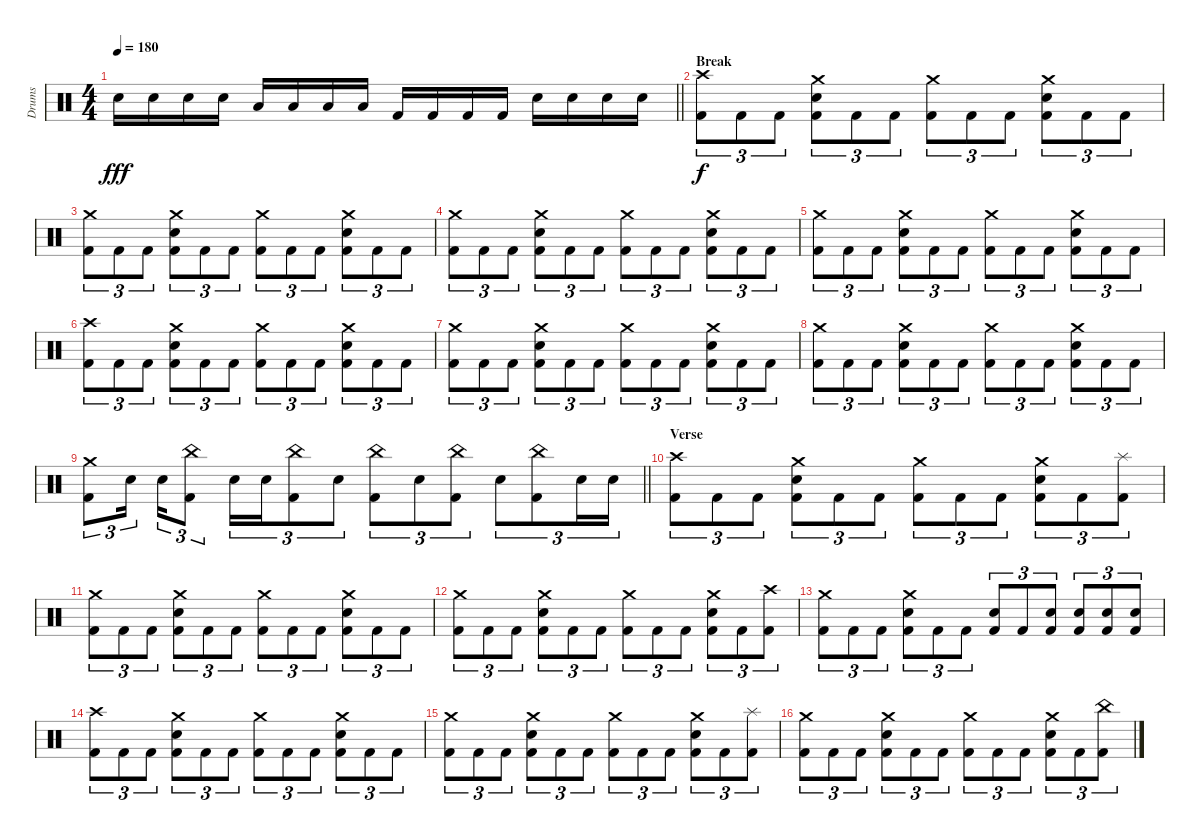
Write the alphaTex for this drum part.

\track ("Drums" "Drums") {instrument percussion}
\staff {score}
\articulation defaults
\ts (4 4)
\tempo 180
\clef neutral
\barLineRight lightlight
\ks c "Electric Snare (hit)".16{dy fff} "Electric Snare (hit)".16 "Electric Snare (hit)".16 "Electric Snare (hit)".16 "Low Tom (hit)".16 "Low Tom (hit)".16 "Low Tom (hit)".16 "Low Tom (hit)".16 "Kick (hit) 2".16 "Kick (hit) 2".16 "Kick (hit) 2".16 "Kick (hit) 2".16 "Electric Snare (hit)".16 "Electric Snare (hit)".16 "Electric Snare (hit)".16 "Electric Snare (hit)".16
|
\section ("" "Break")
("Crash high (hit)" "Kick (hit) 2").8{tu (3 2) dy f} "Kick (hit) 2".8{tu (3 2)} "Kick (hit) 2".8{tu (3 2)} ("Crash medium (hit)" "Electric Snare (hit)" "Kick (hit) 2").8{tu (3 2)} "Kick (hit) 2".8{tu (3 2)} "Kick (hit) 2".8{tu (3 2)} ("Crash medium (hit)" "Kick (hit) 2").8{tu (3 2)} "Kick (hit) 2".8{tu (3 2)} "Kick (hit) 2".8{tu (3 2)} ("Crash medium (hit)" "Electric Snare (hit)" "Kick (hit) 2").8{tu (3 2)} "Kick (hit) 2".8{tu (3 2)} "Kick (hit) 2".8{tu (3 2)} |
("Crash medium (hit)" "Kick (hit) 2").8{tu (3 2)} "Kick (hit) 2".8{tu (3 2)} "Kick (hit) 2".8{tu (3 2)} ("Crash medium (hit)" "Electric Snare (hit)" "Kick (hit) 2").8{tu (3 2)} "Kick (hit) 2".8{tu (3 2)} "Kick (hit) 2".8{tu (3 2)} ("Crash medium (hit)" "Kick (hit) 2").8{tu (3 2)} "Kick (hit) 2".8{tu (3 2)} "Kick (hit) 2".8{tu (3 2)} ("Crash medium (hit)" "Electric Snare (hit)" "Kick (hit) 2").8{tu (3 2)} "Kick (hit) 2".8{tu (3 2)} "Kick (hit) 2".8{tu (3 2)} |
("Crash medium (hit)" "Kick (hit) 2").8{tu (3 2)} "Kick (hit) 2".8{tu (3 2)} "Kick (hit) 2".8{tu (3 2)} ("Crash medium (hit)" "Electric Snare (hit)" "Kick (hit) 2").8{tu (3 2)} "Kick (hit) 2".8{tu (3 2)} "Kick (hit) 2".8{tu (3 2)} ("Crash medium (hit)" "Kick (hit) 2").8{tu (3 2)} "Kick (hit) 2".8{tu (3 2)} "Kick (hit) 2".8{tu (3 2)} ("Crash medium (hit)" "Electric Snare (hit)" "Kick (hit) 2").8{tu (3 2)} "Kick (hit) 2".8{tu (3 2)} "Kick (hit) 2".8{tu (3 2)} |
("Crash medium (hit)" "Kick (hit) 2").8{tu (3 2)} "Kick (hit) 2".8{tu (3 2)} "Kick (hit) 2".8{tu (3 2)} ("Crash medium (hit)" "Electric Snare (hit)" "Kick (hit) 2").8{tu (3 2)} "Kick (hit) 2".8{tu (3 2)} "Kick (hit) 2".8{tu (3 2)} ("Crash medium (hit)" "Kick (hit) 2").8{tu (3 2)} "Kick (hit) 2".8{tu (3 2)} "Kick (hit) 2".8{tu (3 2)} ("Crash medium (hit)" "Electric Snare (hit)" "Kick (hit) 2").8{tu (3 2)} "Kick (hit) 2".8{tu (3 2)} "Kick (hit) 2".8{tu (3 2)} |
("Crash high (hit)" "Kick (hit) 2").8{tu (3 2)} "Kick (hit) 2".8{tu (3 2)} "Kick (hit) 2".8{tu (3 2)} ("Crash medium (hit)" "Electric Snare (hit)" "Kick (hit) 2").8{tu (3 2)} "Kick (hit) 2".8{tu (3 2)} "Kick (hit) 2".8{tu (3 2)} ("Crash medium (hit)" "Kick (hit) 2").8{tu (3 2)} "Kick (hit) 2".8{tu (3 2)} "Kick (hit) 2".8{tu (3 2)} ("Crash medium (hit)" "Electric Snare (hit)" "Kick (hit) 2").8{tu (3 2)} "Kick (hit) 2".8{tu (3 2)} "Kick (hit) 2".8{tu (3 2)} |
("Crash medium (hit)" "Kick (hit) 2").8{tu (3 2)} "Kick (hit) 2".8{tu (3 2)} "Kick (hit) 2".8{tu (3 2)} ("Crash medium (hit)" "Electric Snare (hit)" "Kick (hit) 2").8{tu (3 2)} "Kick (hit) 2".8{tu (3 2)} "Kick (hit) 2".8{tu (3 2)} ("Crash medium (hit)" "Kick (hit) 2").8{tu (3 2)} "Kick (hit) 2".8{tu (3 2)} "Kick (hit) 2".8{tu (3 2)} ("Crash medium (hit)" "Electric Snare (hit)" "Kick (hit) 2").8{tu (3 2)} "Kick (hit) 2".8{tu (3 2)} "Kick (hit) 2".8{tu (3 2)} |
("Crash medium (hit)" "Kick (hit) 2").8{tu (3 2)} "Kick (hit) 2".8{tu (3 2)} "Kick (hit) 2".8{tu (3 2)} ("Crash medium (hit)" "Electric Snare (hit)" "Kick (hit) 2").8{tu (3 2)} "Kick (hit) 2".8{tu (3 2)} "Kick (hit) 2".8{tu (3 2)} ("Crash medium (hit)" "Kick (hit) 2").8{tu (3 2)} "Kick (hit) 2".8{tu (3 2)} "Kick (hit) 2".8{tu (3 2)} ("Crash medium (hit)" "Electric Snare (hit)" "Kick (hit) 2").8{tu (3 2)} "Kick (hit) 2".8{tu (3 2)} "Kick (hit) 2".8{tu (3 2)} |
\barLineRight lightlight
("Crash medium (hit)" "Kick (hit) 2").8{tu (3 2)} "Electric Snare (hit)".16{tu (3 2) beam splitsecondary} "Electric Snare (hit)".16{tu (3 2)} ("China (hit)" "Kick (hit) 2").8{tu (3 2)} "Electric Snare (hit)".16{tu (3 2)} "Electric Snare (hit)".16{tu (3 2)} ("China (hit)" "Kick (hit) 2").8{tu (3 2)} "Electric Snare (hit)".8{tu (3 2)} ("China (hit)" "Kick (hit) 2").8{tu (3 2)} "Electric Snare (hit)".8{tu (3 2)} ("China (hit)" "Kick (hit) 2").8{tu (3 2)} "Electric Snare (hit)".8{tu (3 2)} ("China (hit)" "Kick (hit) 2").8{tu (3 2)} "Electric Snare (hit)".16{tu (3 2)} "Electric Snare (hit)".16{tu (3 2)} |
\section ("" "Verse")
("Crash high (hit)" "Kick (hit) 2").8{tu (3 2)} "Kick (hit) 2".8{tu (3 2)} "Kick (hit) 2".8{tu (3 2)} ("Crash medium (hit)" "Electric Snare (hit)" "Kick (hit) 2").8{tu (3 2)} "Kick (hit) 2".8{tu (3 2)} "Kick (hit) 2".8{tu (3 2)} ("Crash medium (hit)" "Kick (hit) 2").8{tu (3 2)} "Kick (hit) 2".8{tu (3 2)} "Kick (hit) 2".8{tu (3 2)} ("Crash medium (hit)" "Electric Snare (hit)" "Kick (hit) 2").8{tu (3 2)} "Kick (hit) 2".8{tu (3 2)} ("Splash (hit)" "Kick (hit) 2").8{tu (3 2)} |
("Crash medium (hit)" "Kick (hit) 2").8{tu (3 2)} "Kick (hit) 2".8{tu (3 2)} "Kick (hit) 2".8{tu (3 2)} ("Crash medium (hit)" "Electric Snare (hit)" "Kick (hit) 2").8{tu (3 2)} "Kick (hit) 2".8{tu (3 2)} "Kick (hit) 2".8{tu (3 2)} ("Crash medium (hit)" "Kick (hit) 2").8{tu (3 2)} "Kick (hit) 2".8{tu (3 2)} "Kick (hit) 2".8{tu (3 2)} ("Crash medium (hit)" "Electric Snare (hit)" "Kick (hit) 2").8{tu (3 2)} "Kick (hit) 2".8{tu (3 2)} "Kick (hit) 2".8{tu (3 2)} |
("Crash medium (hit)" "Kick (hit) 2").8{tu (3 2)} "Kick (hit) 2".8{tu (3 2)} "Kick (hit) 2".8{tu (3 2)} ("Crash medium (hit)" "Electric Snare (hit)" "Kick (hit) 2").8{tu (3 2)} "Kick (hit) 2".8{tu (3 2)} "Kick (hit) 2".8{tu (3 2)} ("Crash medium (hit)" "Kick (hit) 2").8{tu (3 2)} "Kick (hit) 2".8{tu (3 2)} "Kick (hit) 2".8{tu (3 2)} ("Crash medium (hit)" "Electric Snare (hit)" "Kick (hit) 2").8{tu (3 2)} "Kick (hit) 2".8{tu (3 2)} ("Crash high (hit)" "Kick (hit) 2").8{tu (3 2)} |
("Crash medium (hit)" "Kick (hit) 2").8{tu (3 2)} "Kick (hit) 2".8{tu (3 2)} "Kick (hit) 2".8{tu (3 2)} ("Crash medium (hit)" "Electric Snare (hit)" "Kick (hit) 2").8{tu (3 2)} "Kick (hit) 2".8{tu (3 2)} "Kick (hit) 2".8{tu (3 2)} ("Electric Snare (hit)" "Kick (hit) 2").8{tu (3 2)} "Kick (hit) 2".8{tu (3 2)} ("Electric Snare (hit)" "Kick (hit) 2").8{tu (3 2)} ("Electric Snare (hit)" "Kick (hit) 2").8{tu (3 2)} ("Electric Snare (hit)" "Kick (hit) 2").8{tu (3 2)} ("Electric Snare (hit)" "Kick (hit) 2").8{tu (3 2)} |
("Crash high (hit)" "Kick (hit) 2").8{tu (3 2)} "Kick (hit) 2".8{tu (3 2)} "Kick (hit) 2".8{tu (3 2)} ("Crash medium (hit)" "Electric Snare (hit)" "Kick (hit) 2").8{tu (3 2)} "Kick (hit) 2".8{tu (3 2)} "Kick (hit) 2".8{tu (3 2)} ("Crash medium (hit)" "Kick (hit) 2").8{tu (3 2)} "Kick (hit) 2".8{tu (3 2)} "Kick (hit) 2".8{tu (3 2)} ("Crash medium (hit)" "Electric Snare (hit)" "Kick (hit) 2").8{tu (3 2)} "Kick (hit) 2".8{tu (3 2)} "Kick (hit) 2".8{tu (3 2)} |
("Crash medium (hit)" "Kick (hit) 2").8{tu (3 2)} "Kick (hit) 2".8{tu (3 2)} "Kick (hit) 2".8{tu (3 2)} ("Crash medium (hit)" "Electric Snare (hit)" "Kick (hit) 2").8{tu (3 2)} "Kick (hit) 2".8{tu (3 2)} "Kick (hit) 2".8{tu (3 2)} ("Crash medium (hit)" "Kick (hit) 2").8{tu (3 2)} "Kick (hit) 2".8{tu (3 2)} "Kick (hit) 2".8{tu (3 2)} ("Crash medium (hit)" "Electric Snare (hit)" "Kick (hit) 2").8{tu (3 2)} "Kick (hit) 2".8{tu (3 2)} ("Splash (hit)" "Kick (hit) 2").8{tu (3 2)} |
("Crash medium (hit)" "Kick (hit) 2").8{tu (3 2)} "Kick (hit) 2".8{tu (3 2)} "Kick (hit) 2".8{tu (3 2)} ("Crash medium (hit)" "Electric Snare (hit)" "Kick (hit) 2").8{tu (3 2)} "Kick (hit) 2".8{tu (3 2)} "Kick (hit) 2".8{tu (3 2)} ("Crash medium (hit)" "Kick (hit) 2").8{tu (3 2)} "Kick (hit) 2".8{tu (3 2)} "Kick (hit) 2".8{tu (3 2)} ("Crash medium (hit)" "Electric Snare (hit)" "Kick (hit) 2").8{tu (3 2)} "Kick (hit) 2".8{tu (3 2)} ("China (hit)" "Kick (hit) 2").8{tu (3 2)}
